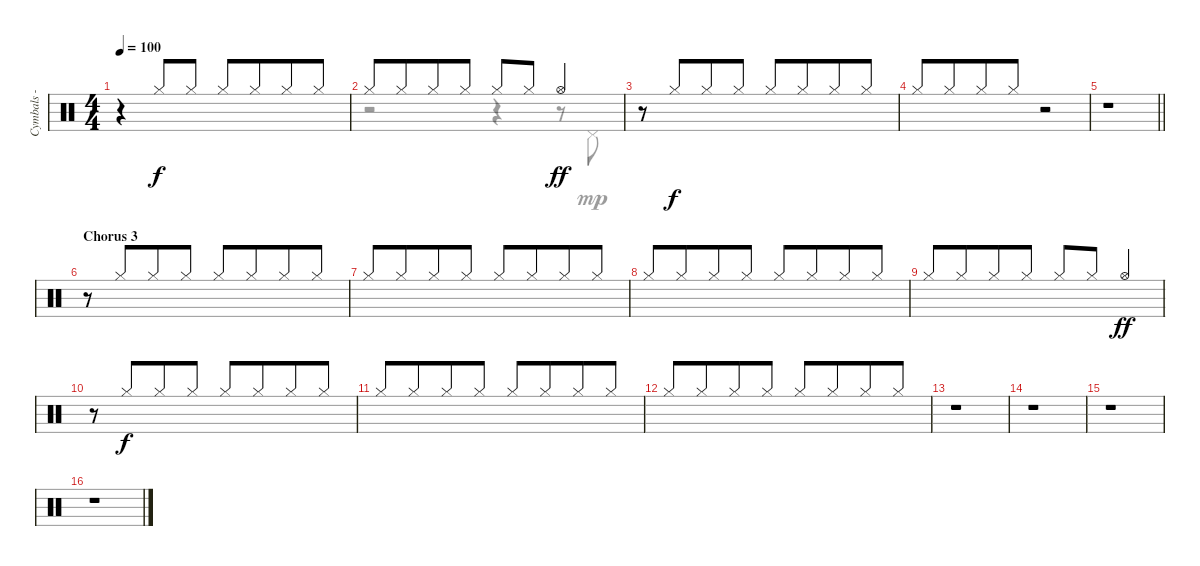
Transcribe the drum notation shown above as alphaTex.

\track ("Cymbals - Hi-Hat" "Cymbals - ") {instrument percussion}
\staff {score}
\articulation defaults
\voice
\ts (4 4)
\tempo 100
\clef neutral
\ks c
r.4{dy ff beam Up beam merge} "Hi-Hat (closed)".8{dy f beam Up} "Hi-Hat (closed)".8{beam Up} "Hi-Hat (closed)".8{beam Up} "Hi-Hat (closed)".8{beam Up beam merge} "Hi-Hat (closed)".8{beam Up} "Hi-Hat (closed)".8{beam Up} |
"Hi-Hat (closed)".8{beam Up} "Hi-Hat (closed)".8{beam Up beam merge} "Hi-Hat (closed)".8{beam Up} "Hi-Hat (closed)".8{beam Up} "Hi-Hat (closed)".8{beam Up} "Hi-Hat (closed)".8{beam Up beam merge} "Hi-Hat (open)".4{dy ff} |
r.8 "Hi-Hat (closed)".8{dy f beam Up beam merge} "Hi-Hat (closed)".8{beam Up} "Hi-Hat (closed)".8{beam Up} "Hi-Hat (closed)".8{beam Up} "Hi-Hat (closed)".8{beam Up beam merge} "Hi-Hat (closed)".8{beam Up} "Hi-Hat (closed)".8{beam Up} |
"Hi-Hat (closed)".8{beam Up} "Hi-Hat (closed)".8{beam Up beam merge} "Hi-Hat (closed)".8{beam Up} "Hi-Hat (closed)".8{beam Up} r.2 |
\barLineRight lightlight
\ks aminor
r.1 |
\section ("" "Chorus 3")
\ks c
r.8 "Hi-Hat (closed)".8{beam Up beam merge} "Hi-Hat (closed)".8{beam Up} "Hi-Hat (closed)".8{beam Up} "Hi-Hat (closed)".8{beam Up} "Hi-Hat (closed)".8{beam Up beam merge} "Hi-Hat (closed)".8{beam Up} "Hi-Hat (closed)".8{beam Up} |
"Hi-Hat (closed)".8{beam Up} "Hi-Hat (closed)".8{beam Up beam merge} "Hi-Hat (closed)".8{beam Up} "Hi-Hat (closed)".8{beam Up} "Hi-Hat (closed)".8{beam Up} "Hi-Hat (closed)".8{beam Up beam merge} "Hi-Hat (closed)".8{beam Up} "Hi-Hat (closed)".8{beam Up} |
"Hi-Hat (closed)".8{beam Up} "Hi-Hat (closed)".8{beam Up beam merge} "Hi-Hat (closed)".8{beam Up} "Hi-Hat (closed)".8{beam Up} "Hi-Hat (closed)".8{beam Up} "Hi-Hat (closed)".8{beam Up beam merge} "Hi-Hat (closed)".8{beam Up} "Hi-Hat (closed)".8{beam Up} |
"Hi-Hat (closed)".8{beam Up} "Hi-Hat (closed)".8{beam Up beam merge} "Hi-Hat (closed)".8{beam Up} "Hi-Hat (closed)".8{beam Up} "Hi-Hat (closed)".8{beam Up} "Hi-Hat (closed)".8{beam Up beam merge} "Hi-Hat (open)".4{dy ff beam Up} |
r.8 "Hi-Hat (closed)".8{dy f beam Up beam merge} "Hi-Hat (closed)".8{beam Up} "Hi-Hat (closed)".8{beam Up} "Hi-Hat (closed)".8{beam Up} "Hi-Hat (closed)".8{beam Up beam merge} "Hi-Hat (closed)".8{beam Up} "Hi-Hat (closed)".8{beam Up} |
"Hi-Hat (closed)".8{beam Up} "Hi-Hat (closed)".8{beam Up beam merge} "Hi-Hat (closed)".8{beam Up} "Hi-Hat (closed)".8{beam Up} "Hi-Hat (closed)".8{beam Up} "Hi-Hat (closed)".8{beam Up beam merge} "Hi-Hat (closed)".8{beam Up} "Hi-Hat (closed)".8{beam Up} |
"Hi-Hat (closed)".8{beam Up} "Hi-Hat (closed)".8{beam Up beam merge} "Hi-Hat (closed)".8{beam Up} "Hi-Hat (closed)".8{beam Up} "Hi-Hat (closed)".8{beam Up} "Hi-Hat (closed)".8{beam Up beam merge} "Hi-Hat (closed)".8{beam Up} "Hi-Hat (closed)".8{beam Up} |
r.1 |
r.1 |
r.1 |
r.1
\voice
\clef neutral
\ottava regular
\simile none
\ks c
|
r.2 r.4 r.8 "Pedal Hi-Hat (hit)".8{dy mp} |
|
|
\barLineRight lightlight
\ks aminor
|
\ks c
|
|
|
|
|
|
|
|
|
|
